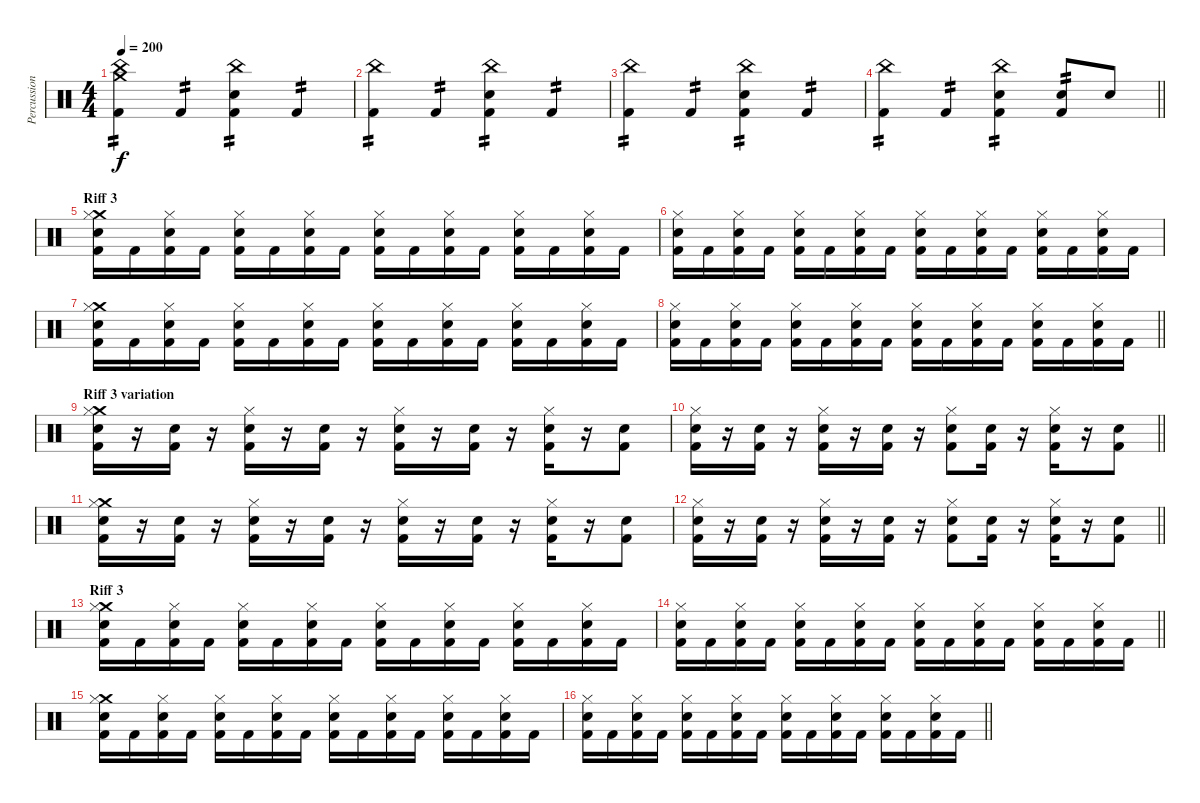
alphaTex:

\track ("Percussion" "Percussion") {instrument percussion}
\staff {score}
\articulation defaults
\ts (4 4)
\tempo 200
\clef neutral
\ks c
("Crash medium (hit)" "China (hit)" "Kick (hit) 2").4{tp 2 dy f} "Kick (hit) 2".4{tp 2} ("China (hit)" "Electric Snare (hit)" "Kick (hit) 2").4{tp 2} "Kick (hit) 2".4{tp 2} |
("China (hit)" "Kick (hit) 2").4{tp 2} "Kick (hit) 2".4{tp 2} ("China (hit)" "Electric Snare (hit)" "Kick (hit) 2").4{tp 2} "Kick (hit) 2".4{tp 2} |
("China (hit)" "Kick (hit) 2").4{tp 2} "Kick (hit) 2".4{tp 2} ("China (hit)" "Electric Snare (hit)" "Kick (hit) 2").4{tp 2} "Kick (hit) 2".4{tp 2} |
\barLineRight lightlight
("China (hit)" "Kick (hit) 2").4{tp 2} "Kick (hit) 2".4{tp 2} ("China (hit)" "Electric Snare (hit)" "Kick (hit) 2").4{tp 2} ("Electric Snare (hit)" "Kick (hit) 2").8{tp 2} "Electric Snare (hit)".8 |
\section ("" "Riff 3")
("Crash medium (hit)" "Hi-Hat (closed)" "Electric Snare (hit)" "Kick (hit) 2").16 "Kick (hit) 2".16 ("Hi-Hat (closed)" "Electric Snare (hit)" "Kick (hit) 2").16 "Kick (hit) 2".16 ("Hi-Hat (closed)" "Electric Snare (hit)" "Kick (hit) 2").16 "Kick (hit) 2".16 ("Hi-Hat (closed)" "Electric Snare (hit)" "Kick (hit) 2").16 "Kick (hit) 2".16 ("Hi-Hat (closed)" "Electric Snare (hit)" "Kick (hit) 2").16 "Kick (hit) 2".16 ("Hi-Hat (closed)" "Electric Snare (hit)" "Kick (hit) 2").16 "Kick (hit) 2".16 ("Hi-Hat (closed)" "Electric Snare (hit)" "Kick (hit) 2").16 "Kick (hit) 2".16 ("Hi-Hat (closed)" "Electric Snare (hit)" "Kick (hit) 2").16 "Kick (hit) 2".16 |
("Hi-Hat (closed)" "Electric Snare (hit)" "Kick (hit) 2").16 "Kick (hit) 2".16 ("Hi-Hat (closed)" "Electric Snare (hit)" "Kick (hit) 2").16 "Kick (hit) 2".16 ("Hi-Hat (closed)" "Electric Snare (hit)" "Kick (hit) 2").16 "Kick (hit) 2".16 ("Hi-Hat (closed)" "Electric Snare (hit)" "Kick (hit) 2").16 "Kick (hit) 2".16 ("Hi-Hat (closed)" "Electric Snare (hit)" "Kick (hit) 2").16 "Kick (hit) 2".16 ("Hi-Hat (closed)" "Electric Snare (hit)" "Kick (hit) 2").16 "Kick (hit) 2".16 ("Hi-Hat (closed)" "Electric Snare (hit)" "Kick (hit) 2").16 "Kick (hit) 2".16 ("Hi-Hat (closed)" "Electric Snare (hit)" "Kick (hit) 2").16 "Kick (hit) 2".16 |
("Crash medium (hit)" "Hi-Hat (closed)" "Electric Snare (hit)" "Kick (hit) 2").16 "Kick (hit) 2".16 ("Hi-Hat (closed)" "Electric Snare (hit)" "Kick (hit) 2").16 "Kick (hit) 2".16 ("Hi-Hat (closed)" "Electric Snare (hit)" "Kick (hit) 2").16 "Kick (hit) 2".16 ("Hi-Hat (closed)" "Electric Snare (hit)" "Kick (hit) 2").16 "Kick (hit) 2".16 ("Hi-Hat (closed)" "Electric Snare (hit)" "Kick (hit) 2").16 "Kick (hit) 2".16 ("Hi-Hat (closed)" "Electric Snare (hit)" "Kick (hit) 2").16 "Kick (hit) 2".16 ("Hi-Hat (closed)" "Electric Snare (hit)" "Kick (hit) 2").16 "Kick (hit) 2".16 ("Hi-Hat (closed)" "Electric Snare (hit)" "Kick (hit) 2").16 "Kick (hit) 2".16 |
\barLineRight lightlight
("Hi-Hat (closed)" "Electric Snare (hit)" "Kick (hit) 2").16 "Kick (hit) 2".16 ("Hi-Hat (closed)" "Electric Snare (hit)" "Kick (hit) 2").16 "Kick (hit) 2".16 ("Hi-Hat (closed)" "Electric Snare (hit)" "Kick (hit) 2").16 "Kick (hit) 2".16 ("Hi-Hat (closed)" "Electric Snare (hit)" "Kick (hit) 2").16 "Kick (hit) 2".16 ("Hi-Hat (closed)" "Electric Snare (hit)" "Kick (hit) 2").16 "Kick (hit) 2".16 ("Hi-Hat (closed)" "Electric Snare (hit)" "Kick (hit) 2").16 "Kick (hit) 2".16 ("Hi-Hat (closed)" "Electric Snare (hit)" "Kick (hit) 2").16 "Kick (hit) 2".16 ("Hi-Hat (closed)" "Electric Snare (hit)" "Kick (hit) 2").16 "Kick (hit) 2".16 |
\section ("" "Riff 3 variation")
("Crash medium (hit)" "Hi-Hat (closed)" "Electric Snare (hit)" "Kick (hit) 2").16 r.16 ("Electric Snare (hit)" "Kick (hit) 2").16 r.16 ("Hi-Hat (closed)" "Electric Snare (hit)" "Kick (hit) 2").16 r.16 ("Electric Snare (hit)" "Kick (hit) 2").16 r.16 ("Hi-Hat (closed)" "Electric Snare (hit)" "Kick (hit) 2").16 r.16 ("Electric Snare (hit)" "Kick (hit) 2").16 r.16 ("Hi-Hat (closed)" "Electric Snare (hit)" "Kick (hit) 2").16 r.16 ("Electric Snare (hit)" "Kick (hit) 2").8 |
\barLineRight lightlight
("Hi-Hat (closed)" "Electric Snare (hit)" "Kick (hit) 2").16 r.16 ("Electric Snare (hit)" "Kick (hit) 2").16 r.16 ("Hi-Hat (closed)" "Electric Snare (hit)" "Kick (hit) 2").16 r.16 ("Electric Snare (hit)" "Kick (hit) 2").16 r.16 ("Hi-Hat (closed)" "Electric Snare (hit)" "Kick (hit) 2").8 ("Electric Snare (hit)" "Kick (hit) 2").16 r.16 ("Hi-Hat (closed)" "Electric Snare (hit)" "Kick (hit) 2").16 r.16 ("Electric Snare (hit)" "Kick (hit) 2").8 |
("Crash medium (hit)" "Hi-Hat (closed)" "Electric Snare (hit)" "Kick (hit) 2").16 r.16 ("Electric Snare (hit)" "Kick (hit) 2").16 r.16 ("Hi-Hat (closed)" "Electric Snare (hit)" "Kick (hit) 2").16 r.16 ("Electric Snare (hit)" "Kick (hit) 2").16 r.16 ("Hi-Hat (closed)" "Electric Snare (hit)" "Kick (hit) 2").16 r.16 ("Electric Snare (hit)" "Kick (hit) 2").16 r.16 ("Hi-Hat (closed)" "Electric Snare (hit)" "Kick (hit) 2").16 r.16 ("Electric Snare (hit)" "Kick (hit) 2").8 |
\barLineRight lightlight
("Hi-Hat (closed)" "Electric Snare (hit)" "Kick (hit) 2").16 r.16 ("Electric Snare (hit)" "Kick (hit) 2").16 r.16 ("Hi-Hat (closed)" "Electric Snare (hit)" "Kick (hit) 2").16 r.16 ("Electric Snare (hit)" "Kick (hit) 2").16 r.16 ("Hi-Hat (closed)" "Electric Snare (hit)" "Kick (hit) 2").8 ("Electric Snare (hit)" "Kick (hit) 2").16 r.16 ("Hi-Hat (closed)" "Electric Snare (hit)" "Kick (hit) 2").16 r.16 ("Electric Snare (hit)" "Kick (hit) 2").8 |
\section ("" "Riff 3")
("Crash medium (hit)" "Hi-Hat (closed)" "Electric Snare (hit)" "Kick (hit) 2").16 "Kick (hit) 2".16 ("Hi-Hat (closed)" "Electric Snare (hit)" "Kick (hit) 2").16 "Kick (hit) 2".16 ("Hi-Hat (closed)" "Electric Snare (hit)" "Kick (hit) 2").16 "Kick (hit) 2".16 ("Hi-Hat (closed)" "Electric Snare (hit)" "Kick (hit) 2").16 "Kick (hit) 2".16 ("Hi-Hat (closed)" "Electric Snare (hit)" "Kick (hit) 2").16 "Kick (hit) 2".16 ("Hi-Hat (closed)" "Electric Snare (hit)" "Kick (hit) 2").16 "Kick (hit) 2".16 ("Hi-Hat (closed)" "Electric Snare (hit)" "Kick (hit) 2").16 "Kick (hit) 2".16 ("Hi-Hat (closed)" "Electric Snare (hit)" "Kick (hit) 2").16 "Kick (hit) 2".16 |
\barLineRight lightlight
("Hi-Hat (closed)" "Electric Snare (hit)" "Kick (hit) 2").16 "Kick (hit) 2".16 ("Hi-Hat (closed)" "Electric Snare (hit)" "Kick (hit) 2").16 "Kick (hit) 2".16 ("Hi-Hat (closed)" "Electric Snare (hit)" "Kick (hit) 2").16 "Kick (hit) 2".16 ("Hi-Hat (closed)" "Electric Snare (hit)" "Kick (hit) 2").16 "Kick (hit) 2".16 ("Hi-Hat (closed)" "Electric Snare (hit)" "Kick (hit) 2").16 "Kick (hit) 2".16 ("Hi-Hat (closed)" "Electric Snare (hit)" "Kick (hit) 2").16 "Kick (hit) 2".16 ("Hi-Hat (closed)" "Electric Snare (hit)" "Kick (hit) 2").16 "Kick (hit) 2".16 ("Hi-Hat (closed)" "Electric Snare (hit)" "Kick (hit) 2").16 "Kick (hit) 2".16 |
("Crash medium (hit)" "Hi-Hat (closed)" "Electric Snare (hit)" "Kick (hit) 2").16 "Kick (hit) 2".16 ("Hi-Hat (closed)" "Electric Snare (hit)" "Kick (hit) 2").16 "Kick (hit) 2".16 ("Hi-Hat (closed)" "Electric Snare (hit)" "Kick (hit) 2").16 "Kick (hit) 2".16 ("Hi-Hat (closed)" "Electric Snare (hit)" "Kick (hit) 2").16 "Kick (hit) 2".16 ("Hi-Hat (closed)" "Electric Snare (hit)" "Kick (hit) 2").16 "Kick (hit) 2".16 ("Hi-Hat (closed)" "Electric Snare (hit)" "Kick (hit) 2").16 "Kick (hit) 2".16 ("Hi-Hat (closed)" "Electric Snare (hit)" "Kick (hit) 2").16 "Kick (hit) 2".16 ("Hi-Hat (closed)" "Electric Snare (hit)" "Kick (hit) 2").16 "Kick (hit) 2".16 |
\barLineRight lightlight
("Hi-Hat (closed)" "Electric Snare (hit)" "Kick (hit) 2").16 "Kick (hit) 2".16 ("Hi-Hat (closed)" "Electric Snare (hit)" "Kick (hit) 2").16 "Kick (hit) 2".16 ("Hi-Hat (closed)" "Electric Snare (hit)" "Kick (hit) 2").16 "Kick (hit) 2".16 ("Hi-Hat (closed)" "Electric Snare (hit)" "Kick (hit) 2").16 "Kick (hit) 2".16 ("Hi-Hat (closed)" "Electric Snare (hit)" "Kick (hit) 2").16 "Kick (hit) 2".16 ("Hi-Hat (closed)" "Electric Snare (hit)" "Kick (hit) 2").16 "Kick (hit) 2".16 ("Hi-Hat (closed)" "Electric Snare (hit)" "Kick (hit) 2").16 "Kick (hit) 2".16 ("Hi-Hat (closed)" "Electric Snare (hit)" "Kick (hit) 2").16 "Kick (hit) 2".16
